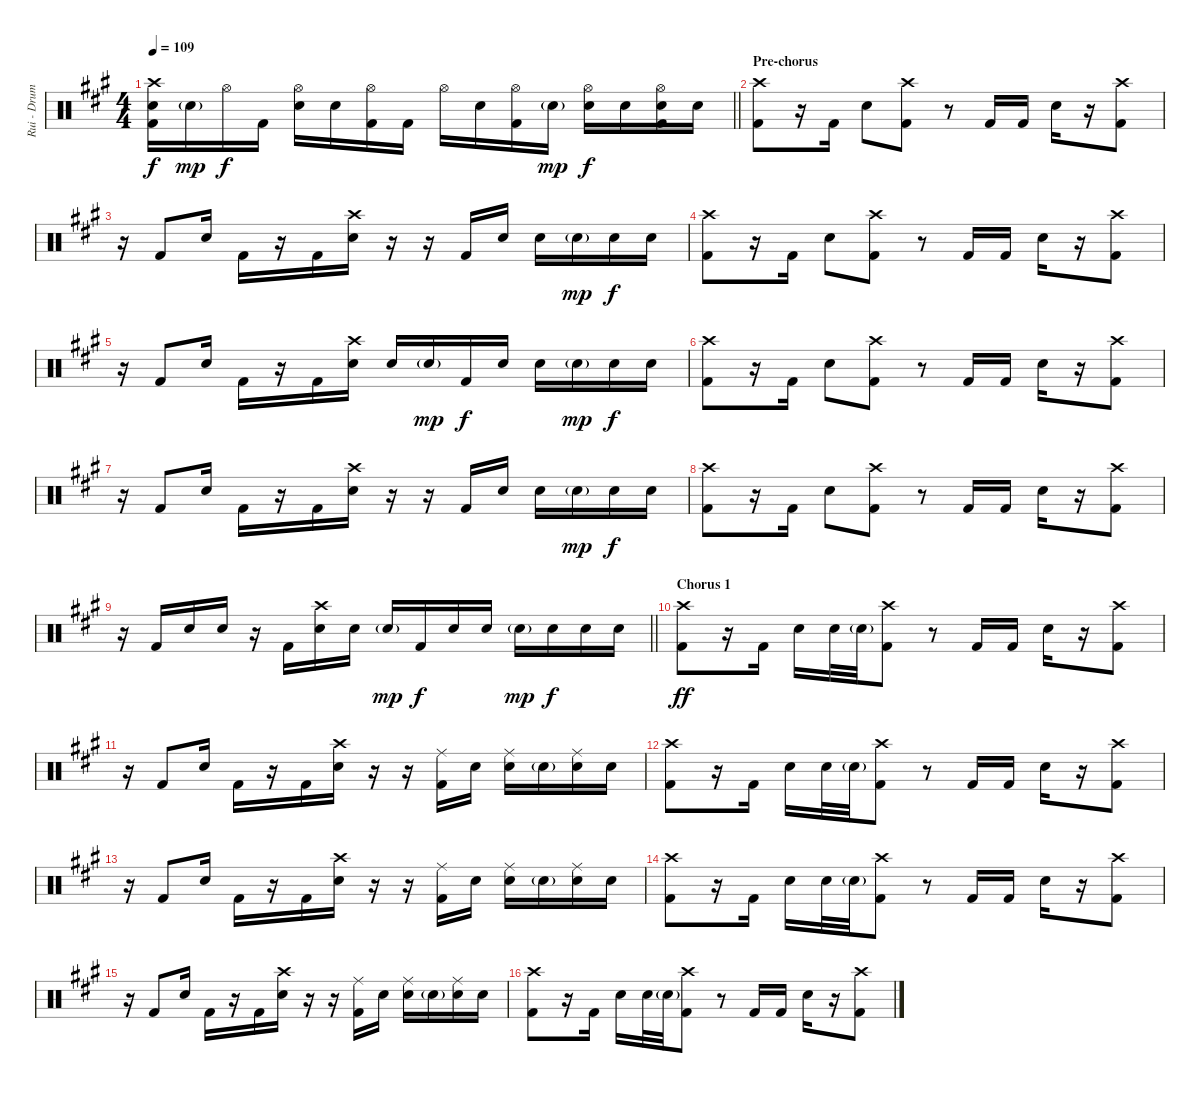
\track ("Rui - Drums" "Rui - Drum") {instrument percussion}
\staff {score}
\articulation defaults
\ts (4 4)
\tempo 109
\clef neutral
\barLineRight lightlight
\ks f#minor
("Crash high (hit)" "Electric Snare (hit)" "Kick (hit) 2").16{dy f} "Electric Snare (hit)"{g}.16{dy mp} "Hi-Hat (open)".16{dy f} "Kick (hit) 2".16 ("Hi-Hat (open)" "Electric Snare (hit)").16 "Electric Snare (hit)".16 ("Hi-Hat (open)" "Kick (hit) 2").16 "Kick (hit) 2".16 "Hi-Hat (open)".16 "Electric Snare (hit)".16 ("Hi-Hat (open)" "Kick (hit) 2").16 "Electric Snare (hit)"{g}.16{dy mp} ("Hi-Hat (open)" "Electric Snare (hit)").16{dy f} "Electric Snare (hit)".16 ("Hi-Hat (open)" "Electric Snare (hit)" "Kick (hit) 2").16 "Electric Snare (hit)".16 |
\section ("" "Pre-chorus")
("Crash high (hit)" "Kick (hit) 2").8 r.16 "Kick (hit) 2".16 "Electric Snare (hit)".8 ("Crash high (hit)" "Kick (hit) 2").8 r.8 "Kick (hit) 2".16 "Kick (hit) 2".16 "Electric Snare (hit)".16 r.16 ("Crash high (hit)" "Kick (hit) 2").8 |
r.16 "Kick (hit) 2".8 "Electric Snare (hit)".16 "Kick (hit) 2".16 r.16 "Kick (hit) 2".16 ("Crash high (hit)" "Electric Snare (hit)").16 r.16 r.16 "Kick (hit) 2".16 "Electric Snare (hit)".16 "Electric Snare (hit)".16 "Electric Snare (hit)"{g}.16{dy mp} "Electric Snare (hit)".16{dy f} "Electric Snare (hit)".16 |
("Crash high (hit)" "Kick (hit) 2").8 r.16 "Kick (hit) 2".16 "Electric Snare (hit)".8 ("Crash high (hit)" "Kick (hit) 2").8 r.8 "Kick (hit) 2".16 "Kick (hit) 2".16 "Electric Snare (hit)".16 r.16 ("Crash high (hit)" "Kick (hit) 2").8 |
r.16 "Kick (hit) 2".8 "Electric Snare (hit)".16 "Kick (hit) 2".16 r.16 "Kick (hit) 2".16 ("Crash high (hit)" "Electric Snare (hit)").16 "Electric Snare (hit)".16 "Electric Snare (hit)"{g}.16{dy mp} "Kick (hit) 2".16{dy f} "Electric Snare (hit)".16 "Electric Snare (hit)".16 "Electric Snare (hit)"{g}.16{dy mp} "Electric Snare (hit)".16{dy f} "Electric Snare (hit)".16 |
("Crash high (hit)" "Kick (hit) 2").8 r.16 "Kick (hit) 2".16 "Electric Snare (hit)".8 ("Crash high (hit)" "Kick (hit) 2").8 r.8 "Kick (hit) 2".16 "Kick (hit) 2".16 "Electric Snare (hit)".16 r.16 ("Crash high (hit)" "Kick (hit) 2").8 |
r.16 "Kick (hit) 2".8 "Electric Snare (hit)".16 "Kick (hit) 2".16 r.16 "Kick (hit) 2".16 ("Crash high (hit)" "Electric Snare (hit)").16 r.16 r.16 "Kick (hit) 2".16 "Electric Snare (hit)".16 "Electric Snare (hit)".16 "Electric Snare (hit)"{g}.16{dy mp} "Electric Snare (hit)".16{dy f} "Electric Snare (hit)".16 |
("Crash high (hit)" "Kick (hit) 2").8 r.16 "Kick (hit) 2".16 "Electric Snare (hit)".8 ("Crash high (hit)" "Kick (hit) 2").8 r.8 "Kick (hit) 2".16 "Kick (hit) 2".16 "Electric Snare (hit)".16 r.16 ("Crash high (hit)" "Kick (hit) 2").8 |
\barLineRight lightlight
r.16 "Kick (hit) 2".16 "Electric Snare (hit)".16 "Electric Snare (hit)".16 r.16 "Kick (hit) 2".16 ("Crash high (hit)" "Electric Snare (hit)").16 "Electric Snare (hit)".16 "Electric Snare (hit)"{g}.16{dy mp} "Kick (hit) 2".16{dy f} "Electric Snare (hit)".16 "Electric Snare (hit)".16 "Electric Snare (hit)"{g}.16{dy mp} "Electric Snare (hit)".16{dy f} "Electric Snare (hit)".16 "Electric Snare (hit)".16 |
\section ("" "Chorus 1")
("Crash high (hit)" "Kick (hit) 2").8{dy ff} r.16 "Kick (hit) 2".16 "Electric Snare (hit)".16 "Electric Snare (hit)".32 "Electric Snare (hit)"{g}.32 ("Crash high (hit)" "Kick (hit) 2").8 r.8 "Kick (hit) 2".16 "Kick (hit) 2".16 "Electric Snare (hit)".16 r.16 ("Crash high (hit)" "Kick (hit) 2").8 |
r.16 "Kick (hit) 2".8 "Electric Snare (hit)".16 "Kick (hit) 2".16 r.16 "Kick (hit) 2".16 ("Crash high (hit)" "Electric Snare (hit)").16 r.16 r.16 ("Ride (middle)" "Kick (hit) 2").16 "Electric Snare (hit)".16 ("Ride (middle)" "Electric Snare (hit)").16 "Electric Snare (hit)"{g}.16 ("Ride (middle)" "Electric Snare (hit)").16 "Electric Snare (hit)".16 |
("Crash high (hit)" "Kick (hit) 2").8 r.16 "Kick (hit) 2".16 "Electric Snare (hit)".16 "Electric Snare (hit)".32 "Electric Snare (hit)"{g}.32 ("Crash high (hit)" "Kick (hit) 2").8 r.8 "Kick (hit) 2".16 "Kick (hit) 2".16 "Electric Snare (hit)".16 r.16 ("Crash high (hit)" "Kick (hit) 2").8 |
r.16 "Kick (hit) 2".8 "Electric Snare (hit)".16 "Kick (hit) 2".16 r.16 "Kick (hit) 2".16 ("Crash high (hit)" "Electric Snare (hit)").16 r.16 r.16 ("Ride (middle)" "Kick (hit) 2").16 "Electric Snare (hit)".16 ("Ride (middle)" "Electric Snare (hit)").16 "Electric Snare (hit)"{g}.16 ("Ride (middle)" "Electric Snare (hit)").16 "Electric Snare (hit)".16 |
("Crash high (hit)" "Kick (hit) 2").8 r.16 "Kick (hit) 2".16 "Electric Snare (hit)".16 "Electric Snare (hit)".32 "Electric Snare (hit)"{g}.32 ("Crash high (hit)" "Kick (hit) 2").8 r.8 "Kick (hit) 2".16 "Kick (hit) 2".16 "Electric Snare (hit)".16 r.16 ("Crash high (hit)" "Kick (hit) 2").8 |
r.16 "Kick (hit) 2".8 "Electric Snare (hit)".16 "Kick (hit) 2".16 r.16 "Kick (hit) 2".16 ("Crash high (hit)" "Electric Snare (hit)").16 r.16 r.16 ("Ride (middle)" "Kick (hit) 2").16 "Electric Snare (hit)".16 ("Ride (middle)" "Electric Snare (hit)").16 "Electric Snare (hit)"{g}.16 ("Ride (middle)" "Electric Snare (hit)").16 "Electric Snare (hit)".16 |
("Crash high (hit)" "Kick (hit) 2").8 r.16 "Kick (hit) 2".16 "Electric Snare (hit)".16 "Electric Snare (hit)".32 "Electric Snare (hit)"{g}.32 ("Crash high (hit)" "Kick (hit) 2").8 r.8 "Kick (hit) 2".16 "Kick (hit) 2".16 "Electric Snare (hit)".16 r.16 ("Crash high (hit)" "Kick (hit) 2").8
